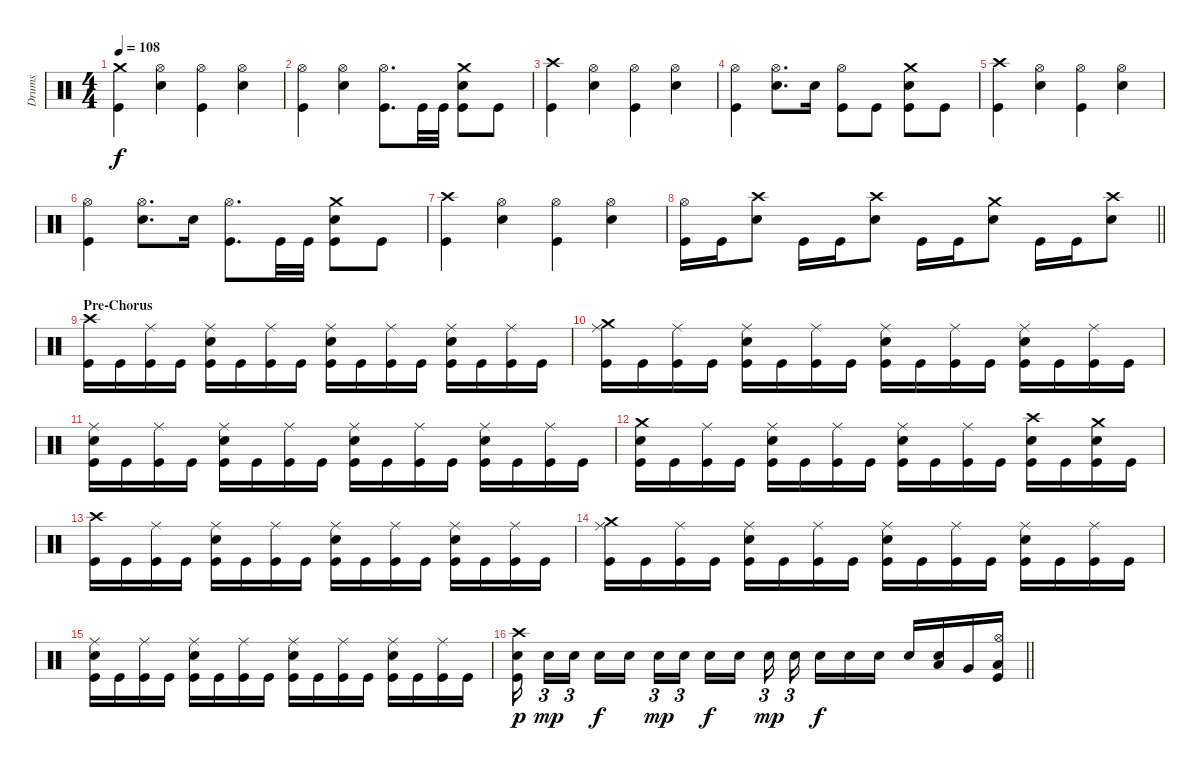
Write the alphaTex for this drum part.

\track ("Drums" "Drums") {instrument percussion}
\staff {score}
\articulation defaults
\ts (4 4)
\tempo 108
\clef neutral
\ks c
("Crash medium (hit)" "Kick (hit)").4{dy f} ("Hi-Hat (open)" "Electric Snare (hit)").4 ("Hi-Hat (open)" "Kick (hit)").4 ("Hi-Hat (open)" "Electric Snare (hit)").4 |
("Hi-Hat (open)" "Kick (hit)").4 ("Hi-Hat (open)" "Electric Snare (hit)").4 ("Hi-Hat (open)" "Kick (hit)").8{d} "Kick (hit)".32 "Kick (hit)".32 ("Crash medium (hit)" "Electric Snare (hit)" "Kick (hit)").8 "Kick (hit)".8 |
("Crash high (hit)" "Kick (hit)").4 ("Hi-Hat (open)" "Electric Snare (hit)").4 ("Hi-Hat (open)" "Kick (hit)").4 ("Hi-Hat (open)" "Electric Snare (hit)").4 |
("Hi-Hat (open)" "Kick (hit)").4 ("Hi-Hat (open)" "Electric Snare (hit)").8{d} "Electric Snare (hit)".16 ("Hi-Hat (open)" "Kick (hit)").8 "Kick (hit)".8 ("Crash medium (hit)" "Electric Snare (hit)" "Kick (hit)").8 "Kick (hit)".8 |
("Crash high (hit)" "Kick (hit)").4 ("Hi-Hat (open)" "Electric Snare (hit)").4 ("Hi-Hat (open)" "Kick (hit)").4 ("Hi-Hat (open)" "Electric Snare (hit)").4 |
("Hi-Hat (open)" "Kick (hit)").4 ("Hi-Hat (open)" "Electric Snare (hit)").8{d} "Electric Snare (hit)".16 ("Hi-Hat (open)" "Kick (hit)").8{d} "Kick (hit)".32 "Kick (hit)".32 ("Crash medium (hit)" "Electric Snare (hit)" "Kick (hit)").8 "Kick (hit)".8 |
("Crash high (hit)" "Kick (hit)").4 ("Hi-Hat (open)" "Electric Snare (hit)").4 ("Hi-Hat (open)" "Kick (hit)").4 ("Hi-Hat (open)" "Electric Snare (hit)").4 |
\barLineRight lightlight
("Hi-Hat (open)" "Kick (hit)").16 "Kick (hit)".16 ("Crash high (hit)" "Electric Snare (hit)").8 "Kick (hit)".16 "Kick (hit)".16 ("Crash high (hit)" "Electric Snare (hit)").8 "Kick (hit)".16 "Kick (hit)".16 ("Crash medium (hit)" "Electric Snare (hit)").8 "Kick (hit)".16 "Kick (hit)".16 ("Crash high (hit)" "Electric Snare (hit)").8 |
\section ("" "Pre-Chorus")
("Crash high (hit)" "Kick (hit)").16 "Kick (hit)".16 ("Ride (middle)" "Kick (hit)").16 "Kick (hit)".16 ("Ride (middle)" "Electric Snare (hit)" "Kick (hit)").16 "Kick (hit)".16 ("Ride (middle)" "Kick (hit)").16 "Kick (hit)".16 ("Ride (middle)" "Electric Snare (hit)" "Kick (hit)").16 "Kick (hit)".16 ("Ride (middle)" "Kick (hit)").16 "Kick (hit)".16 ("Ride (middle)" "Electric Snare (hit)" "Kick (hit)").16 "Kick (hit)".16 ("Ride (middle)" "Kick (hit)").16 "Kick (hit)".16 |
("Crash medium (hit)" "Ride (middle)" "Kick (hit)").16 "Kick (hit)".16 ("Ride (middle)" "Kick (hit)").16 "Kick (hit)".16 ("Ride (middle)" "Electric Snare (hit)" "Kick (hit)").16 "Kick (hit)".16 ("Ride (middle)" "Kick (hit)").16 "Kick (hit)".16 ("Ride (middle)" "Electric Snare (hit)" "Kick (hit)").16 "Kick (hit)".16 ("Ride (middle)" "Kick (hit)").16 "Kick (hit)".16 ("Ride (middle)" "Electric Snare (hit)" "Kick (hit)").16 "Kick (hit)".16 ("Ride (middle)" "Kick (hit)").16 "Kick (hit)".16 |
("Ride (middle)" "Electric Snare (hit)" "Kick (hit)").16 "Kick (hit)".16 ("Ride (middle)" "Kick (hit)").16 "Kick (hit)".16 ("Ride (middle)" "Electric Snare (hit)" "Kick (hit)").16 "Kick (hit)".16 ("Ride (middle)" "Kick (hit)").16 "Kick (hit)".16 ("Ride (middle)" "Electric Snare (hit)" "Kick (hit)").16 "Kick (hit)".16 ("Ride (middle)" "Kick (hit)").16 "Kick (hit)".16 ("Ride (middle)" "Electric Snare (hit)" "Kick (hit)").16 "Kick (hit)".16 ("Ride (middle)" "Kick (hit)").16 "Kick (hit)".16 |
("Crash medium (hit)" "Electric Snare (hit)" "Kick (hit)").16 "Kick (hit)".16 ("Ride (middle)" "Kick (hit)").16 "Kick (hit)".16 ("Ride (middle)" "Electric Snare (hit)" "Kick (hit)").16 "Kick (hit)".16 ("Ride (middle)" "Kick (hit)").16 "Kick (hit)".16 ("Ride (middle)" "Electric Snare (hit)" "Kick (hit)").16 "Kick (hit)".16 ("Ride (middle)" "Kick (hit)").16 "Kick (hit)".16 ("Crash high (hit)" "Electric Snare (hit)" "Kick (hit)").16 "Kick (hit)".16 ("Crash medium (hit)" "Electric Snare (hit)" "Kick (hit)").16 "Kick (hit)".16 |
("Crash high (hit)" "Kick (hit)").16 "Kick (hit)".16 ("Ride (middle)" "Kick (hit)").16 "Kick (hit)".16 ("Ride (middle)" "Electric Snare (hit)" "Kick (hit)").16 "Kick (hit)".16 ("Ride (middle)" "Kick (hit)").16 "Kick (hit)".16 ("Ride (middle)" "Electric Snare (hit)" "Kick (hit)").16 "Kick (hit)".16 ("Ride (middle)" "Kick (hit)").16 "Kick (hit)".16 ("Ride (middle)" "Electric Snare (hit)" "Kick (hit)").16 "Kick (hit)".16 ("Ride (middle)" "Kick (hit)").16 "Kick (hit)".16 |
("Crash medium (hit)" "Ride (middle)" "Kick (hit)").16 "Kick (hit)".16 ("Ride (middle)" "Kick (hit)").16 "Kick (hit)".16 ("Ride (middle)" "Electric Snare (hit)" "Kick (hit)").16 "Kick (hit)".16 ("Ride (middle)" "Kick (hit)").16 "Kick (hit)".16 ("Ride (middle)" "Electric Snare (hit)" "Kick (hit)").16 "Kick (hit)".16 ("Ride (middle)" "Kick (hit)").16 "Kick (hit)".16 ("Ride (middle)" "Electric Snare (hit)" "Kick (hit)").16 "Kick (hit)".16 ("Ride (middle)" "Kick (hit)").16 "Kick (hit)".16 |
("Ride (middle)" "Electric Snare (hit)" "Kick (hit)").16 "Kick (hit)".16 ("Ride (middle)" "Kick (hit)").16 "Kick (hit)".16 ("Ride (middle)" "Electric Snare (hit)" "Kick (hit)").16 "Kick (hit)".16 ("Ride (middle)" "Kick (hit)").16 "Kick (hit)".16 ("Ride (middle)" "Electric Snare (hit)" "Kick (hit)").16 "Kick (hit)".16 ("Ride (middle)" "Kick (hit)").16 "Kick (hit)".16 ("Ride (middle)" "Electric Snare (hit)" "Kick (hit)").16 "Kick (hit)".16 ("Ride (middle)" "Kick (hit)").16 "Kick (hit)".16 |
\barLineRight lightlight
("Crash high (hit)" "Electric Snare (hit)" "Kick (hit)").16{dy p beam splitsecondary} "Electric Snare (hit)".16{tu (3 2) dy mp} "Electric Snare (hit)".16{tu (3 2) beam splitsecondary} "Electric Snare (hit)".16{dy f} "Electric Snare (hit)".16 "Electric Snare (hit)".16{tu (3 2) dy mp} "Electric Snare (hit)".16{tu (3 2) beam splitsecondary} "Electric Snare (hit)".16{dy f} "Electric Snare (hit)".16{beam splitsecondary} "Electric Snare (hit)".16{tu (3 2) dy mp} "Electric Snare (hit)".16{tu (3 2) beam splitsecondary} "Electric Snare (hit)".16{dy f} "Electric Snare (hit)".16 "Electric Snare (hit)".16 "Electric Snare (hit)".16 ("Electric Snare (hit)" "Low Tom (hit)").16 "Very Low Tom (hit)".16 ("Hi-Hat (open)" "Low Floor Tom (hit)" "Kick (hit)").16
